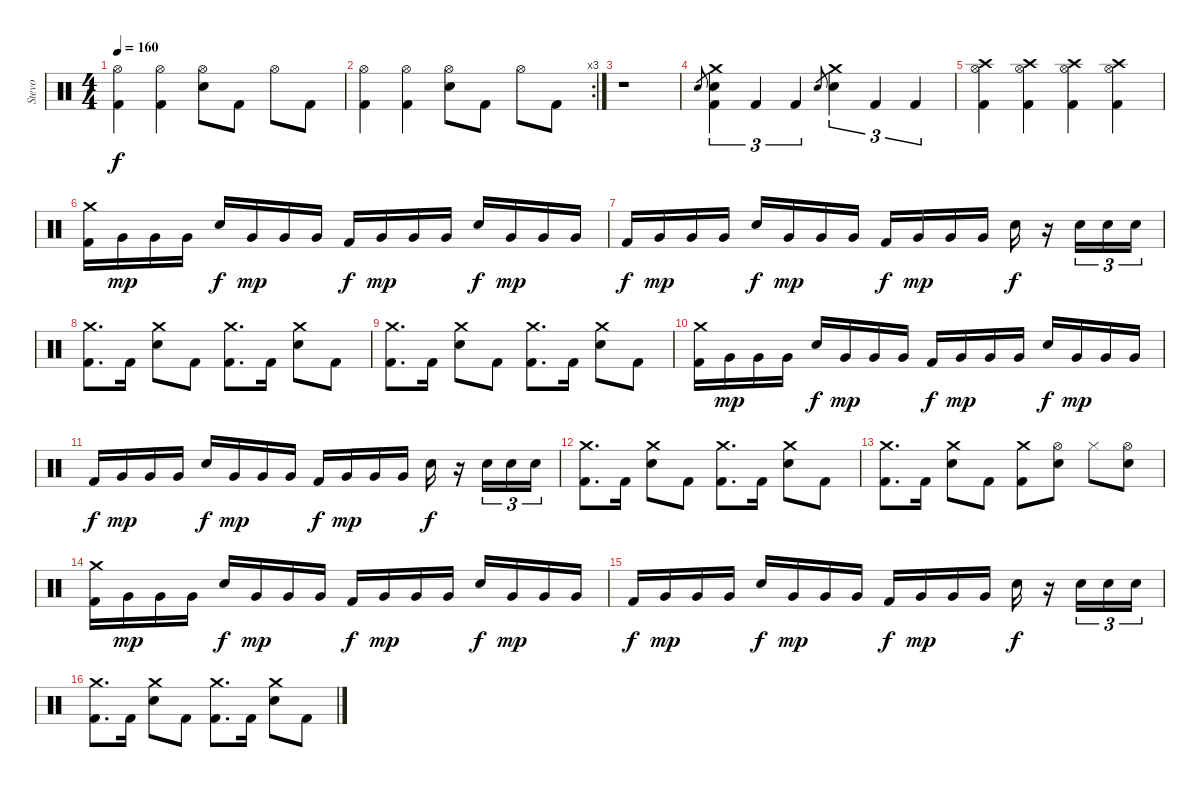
\track ("Stevo" "Stevo") {instrument percussion}
\staff {score}
\articulation defaults
\ts (4 4)
\tempo 160
\clef neutral
\ks c
("Hi-Hat (open)" "Kick (hit) 2").4{dy f} ("Hi-Hat (open)" "Kick (hit) 2").4 ("Electric Snare (hit)" "Hi-Hat (open)").8 "Kick (hit) 2".8 "Hi-Hat (open)".8 "Kick (hit) 2".8 |
\rc 3
("Hi-Hat (open)" "Kick (hit) 2").4 ("Hi-Hat (open)" "Kick (hit) 2").4 ("Electric Snare (hit)" "Hi-Hat (open)").8 "Kick (hit) 2".8 "Hi-Hat (open)".8 "Kick (hit) 2".8 |
r.1 |
"Electric Snare (hit)".8{gr} ("Crash medium (hit)" "Electric Snare (hit)" "Kick (hit) 2").4{tu (3 2)} "Kick (hit) 2".4{tu (3 2)} "Kick (hit) 2".4{tu (3 2)} "Electric Snare (hit)".8{gr} ("Crash medium (hit)" "Electric Snare (hit)").4{tu (3 2)} "Kick (hit) 2".4{tu (3 2)} "Kick (hit) 2".4{tu (3 2)} |
("Crash high (hit)" "Hi-Hat (open)" "Kick (hit) 2").4 ("Crash high (hit)" "Hi-Hat (open)" "Kick (hit) 2").4 ("Crash high (hit)" "Hi-Hat (open)" "Kick (hit) 2").4 ("Crash high (hit)" "Hi-Hat (open)" "Kick (hit) 2").4 |
("Crash medium (hit)" "Kick (hit) 2").16 "Very Low Tom (hit)".16{dy mp} "Very Low Tom (hit)".16 "Very Low Tom (hit)".16 "Electric Snare (hit)".16{dy f} "Very Low Tom (hit)".16{dy mp} "Very Low Tom (hit)".16 "Very Low Tom (hit)".16 "Kick (hit) 2".16{dy f} "Very Low Tom (hit)".16{dy mp} "Very Low Tom (hit)".16 "Very Low Tom (hit)".16 "Electric Snare (hit)".16{dy f} "Very Low Tom (hit)".16{dy mp} "Very Low Tom (hit)".16 "Very Low Tom (hit)".16 |
"Kick (hit) 2".16{dy f} "Very Low Tom (hit)".16{dy mp} "Very Low Tom (hit)".16 "Very Low Tom (hit)".16 "Electric Snare (hit)".16{dy f} "Very Low Tom (hit)".16{dy mp} "Very Low Tom (hit)".16 "Very Low Tom (hit)".16 "Kick (hit) 2".16{dy f} "Very Low Tom (hit)".16{dy mp} "Very Low Tom (hit)".16 "Very Low Tom (hit)".16 "Electric Snare (hit)".16{dy f} r.16 "Electric Snare (hit)".16{tu (3 2)} "Electric Snare (hit)".16{tu (3 2)} "Electric Snare (hit)".16{tu (3 2)} |
("Crash medium (hit)" "Kick (hit) 2").8{d} "Kick (hit) 2".16 ("Crash medium (hit)" "Electric Snare (hit)").8 "Kick (hit) 2".8 ("Crash medium (hit)" "Kick (hit) 2").8{d} "Kick (hit) 2".16 ("Crash medium (hit)" "Electric Snare (hit)").8 "Kick (hit) 2".8 |
("Crash medium (hit)" "Kick (hit) 2").8{d} "Kick (hit) 2".16 ("Crash medium (hit)" "Electric Snare (hit)").8 "Kick (hit) 2".8 ("Crash medium (hit)" "Kick (hit) 2").8{d} "Kick (hit) 2".16 ("Crash medium (hit)" "Electric Snare (hit)").8 "Kick (hit) 2".8 |
("Crash medium (hit)" "Kick (hit) 2").16 "Very Low Tom (hit)".16{dy mp} "Very Low Tom (hit)".16 "Very Low Tom (hit)".16 "Electric Snare (hit)".16{dy f} "Very Low Tom (hit)".16{dy mp} "Very Low Tom (hit)".16 "Very Low Tom (hit)".16 "Kick (hit) 2".16{dy f} "Very Low Tom (hit)".16{dy mp} "Very Low Tom (hit)".16 "Very Low Tom (hit)".16 "Electric Snare (hit)".16{dy f} "Very Low Tom (hit)".16{dy mp} "Very Low Tom (hit)".16 "Very Low Tom (hit)".16 |
"Kick (hit) 2".16{dy f} "Very Low Tom (hit)".16{dy mp} "Very Low Tom (hit)".16 "Very Low Tom (hit)".16 "Electric Snare (hit)".16{dy f} "Very Low Tom (hit)".16{dy mp} "Very Low Tom (hit)".16 "Very Low Tom (hit)".16 "Kick (hit) 2".16{dy f} "Very Low Tom (hit)".16{dy mp} "Very Low Tom (hit)".16 "Very Low Tom (hit)".16 "Electric Snare (hit)".16{dy f} r.16 "Electric Snare (hit)".16{tu (3 2)} "Electric Snare (hit)".16{tu (3 2)} "Electric Snare (hit)".16{tu (3 2)} |
("Crash medium (hit)" "Kick (hit) 2").8{d} "Kick (hit) 2".16 ("Crash medium (hit)" "Electric Snare (hit)").8 "Kick (hit) 2".8 ("Crash medium (hit)" "Kick (hit) 2").8{d} "Kick (hit) 2".16 ("Crash medium (hit)" "Electric Snare (hit)").8 "Kick (hit) 2".8 |
("Crash medium (hit)" "Kick (hit) 2").8{d} "Kick (hit) 2".16 ("Crash medium (hit)" "Electric Snare (hit)").8 "Kick (hit) 2".8 ("Crash medium (hit)" "Kick (hit) 2").8 ("Hi-Hat (open)" "Electric Snare (hit)").8 "Hi-Hat (closed)".8 ("Hi-Hat (open)" "Electric Snare (hit)").8 |
("Crash medium (hit)" "Kick (hit) 2").16 "Very Low Tom (hit)".16{dy mp} "Very Low Tom (hit)".16 "Very Low Tom (hit)".16 "Electric Snare (hit)".16{dy f} "Very Low Tom (hit)".16{dy mp} "Very Low Tom (hit)".16 "Very Low Tom (hit)".16 "Kick (hit) 2".16{dy f} "Very Low Tom (hit)".16{dy mp} "Very Low Tom (hit)".16 "Very Low Tom (hit)".16 "Electric Snare (hit)".16{dy f} "Very Low Tom (hit)".16{dy mp} "Very Low Tom (hit)".16 "Very Low Tom (hit)".16 |
"Kick (hit) 2".16{dy f} "Very Low Tom (hit)".16{dy mp} "Very Low Tom (hit)".16 "Very Low Tom (hit)".16 "Electric Snare (hit)".16{dy f} "Very Low Tom (hit)".16{dy mp} "Very Low Tom (hit)".16 "Very Low Tom (hit)".16 "Kick (hit) 2".16{dy f} "Very Low Tom (hit)".16{dy mp} "Very Low Tom (hit)".16 "Very Low Tom (hit)".16 "Electric Snare (hit)".16{dy f} r.16 "Electric Snare (hit)".16{tu (3 2)} "Electric Snare (hit)".16{tu (3 2)} "Electric Snare (hit)".16{tu (3 2)} |
("Crash medium (hit)" "Kick (hit) 2").8{d} "Kick (hit) 2".16 ("Crash medium (hit)" "Electric Snare (hit)").8 "Kick (hit) 2".8 ("Crash medium (hit)" "Kick (hit) 2").8{d} "Kick (hit) 2".16 ("Crash medium (hit)" "Electric Snare (hit)").8 "Kick (hit) 2".8
